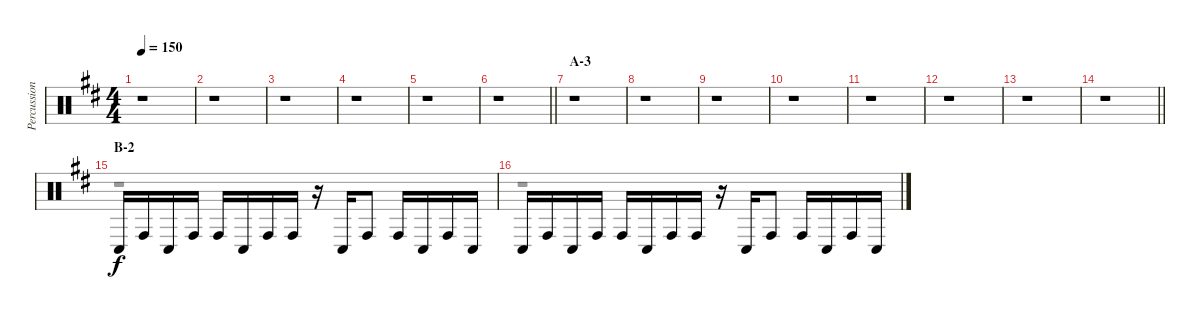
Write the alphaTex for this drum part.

\track ("Percussion" "Percussion") {instrument percussion}
\staff {score}
\articulation defaults
\voice
\ts (4 4)
\tempo 150
\clef neutral
\ks d
r.1{dy f} |
r.1 |
r.1 |
r.1 |
r.1 |
\barLineRight lightlight
r.1 |
\section ("" "A-3")
r.1 |
r.1 |
r.1 |
r.1 |
r.1 |
r.1 |
r.1 |
\barLineRight lightlight
r.1 |
\section ("" "B-2")
"Conga low (hit)".16 "Conga high (hit)".16 "Conga low (hit)".16 "Conga high (hit)".16 "Conga high (hit)".16 "Conga low (hit)".16 "Conga high (hit)".16 "Conga high (hit)".16 r.16 "Conga low (hit)".16 "Conga high (hit)".8 "Conga high (hit)".16 "Conga low (hit)".16 "Conga high (hit)".16 "Conga low (hit)".16 |
"Conga low (hit)".16 "Conga high (hit)".16 "Conga low (hit)".16 "Conga high (hit)".16 "Conga high (hit)".16 "Conga low (hit)".16 "Conga high (hit)".16 "Conga high (hit)".16 r.16 "Conga low (hit)".16 "Conga high (hit)".8 "Conga high (hit)".16 "Conga low (hit)".16 "Conga high (hit)".16 "Conga low (hit)".16
\voice
\clef neutral
\ottava regular
\simile none
\ks d
r.1{dy f} |
r.1 |
r.1 |
r.1 |
r.1 |
\barLineRight lightlight
r.1 |
r.1 |
r.1 |
r.1 |
r.1 |
r.1 |
r.1 |
r.1 |
\barLineRight lightlight
r.1 |
r.1 |
r.1
